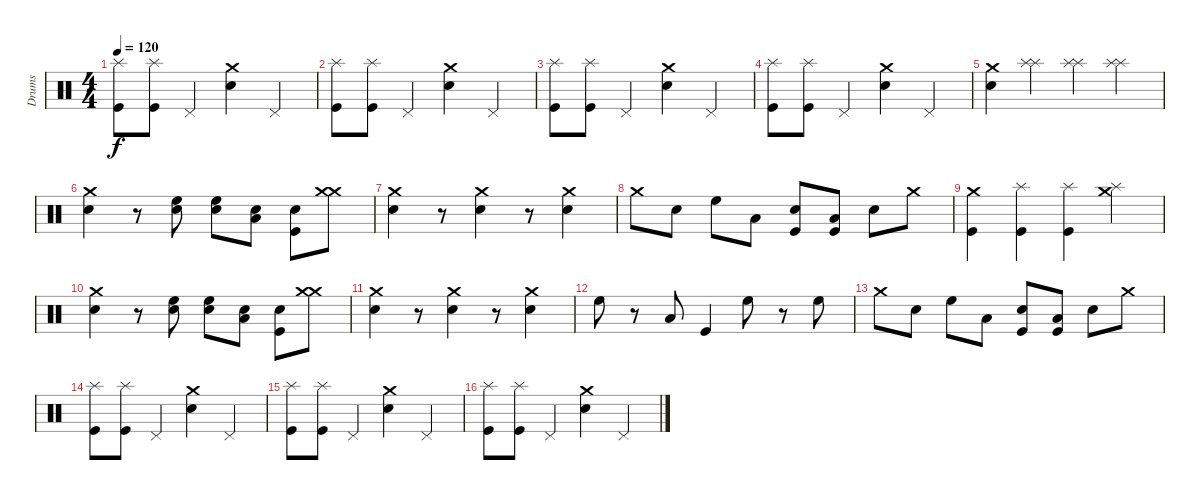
\track ("Drums" "Drums") {instrument percussion}
\staff {score}
\articulation defaults
\ts (4 4)
\tempo 120
\clef neutral
\ks c
("Splash (hit)" "Kick (hit)").8{dy f} ("Splash (hit)" "Kick (hit)").8 "Pedal Hi-Hat (hit)".4 ("Crash medium (hit)" "Snare (hit) 2").4 "Pedal Hi-Hat (hit)".4 |
("Splash (hit)" "Kick (hit)").8 ("Splash (hit)" "Kick (hit)").8 "Pedal Hi-Hat (hit)".4 ("Crash medium (hit)" "Snare (hit) 2").4 "Pedal Hi-Hat (hit)".4 |
("Splash (hit)" "Kick (hit)").8 ("Splash (hit)" "Kick (hit)").8 "Pedal Hi-Hat (hit)".4 ("Crash medium (hit)" "Snare (hit) 2").4 "Pedal Hi-Hat (hit)".4 |
("Splash (hit)" "Kick (hit)").8 ("Splash (hit)" "Kick (hit)").8 "Pedal Hi-Hat (hit)".4 ("Crash medium (hit)" "Snare (hit) 2").4 "Pedal Hi-Hat (hit)".4 |
("Snare (hit) 2" "Crash medium (hit)").4 ("Splash (hit)" "Splash (hit)").4 ("Splash (hit)" "Splash (hit)").4 ("Splash (hit)" "Splash (hit)").4 |
("Snare (hit) 2" "Crash medium (hit)").4 r.8 ("High Floor Tom (hit)" "Snare (hit)").8 ("High Floor Tom (hit)" "Snare (hit)").8 ("Low Floor Tom (hit)" "Snare (hit)").8 ("Snare (hit) 2" "Kick (hit)").8 ("Crash medium (hit)" "Crash medium (hit)").8 |
("Crash medium (hit)" "Snare (hit) 2").4 r.8 ("Crash medium (hit)" "Snare (hit) 2").4 r.8 ("Crash medium (hit)" "Snare (hit) 2").4 |
"Crash medium (hit)".8 "Snare (hit) 2".8 "High Floor Tom (hit)".8 "Low Floor Tom (hit)".8 ("Kick (hit)" "Snare (hit) 2").8 ("Kick (hit)" "Low Floor Tom (hit)").8 "Snare (hit) 2".8 "Crash medium (hit)".8 |
("Kick (hit)" "Crash medium (hit)").4 ("Kick (hit)" "Splash (hit)").4 ("Kick (hit)" "Splash (hit)").4 ("Crash medium (hit)" "Splash (hit)").4 |
("Snare (hit) 2" "Crash medium (hit)").4 r.8 ("High Floor Tom (hit)" "Snare (hit)").8 ("High Floor Tom (hit)" "Snare (hit)").8 ("Low Floor Tom (hit)" "Snare (hit)").8 ("Snare (hit) 2" "Kick (hit)").8 ("Crash medium (hit)" "Crash medium (hit)").8 |
("Crash medium (hit)" "Snare (hit) 2").4 r.8 ("Crash medium (hit)" "Snare (hit) 2").4 r.8 ("Crash medium (hit)" "Snare (hit) 2").4 |
"High Floor Tom (hit)".8 r.8 "Low Floor Tom (hit)".8 "Kick (hit)".4 "High Floor Tom (hit)".8 r.8 "High Floor Tom (hit)".8 |
"Crash medium (hit)".8 "Snare (hit) 2".8 "High Floor Tom (hit)".8 "Low Floor Tom (hit)".8 ("Kick (hit)" "Snare (hit) 2").8 ("Kick (hit)" "Low Floor Tom (hit)").8 "Snare (hit) 2".8 "Crash medium (hit)".8 |
("Splash (hit)" "Kick (hit)").8 ("Splash (hit)" "Kick (hit)").8 "Pedal Hi-Hat (hit)".4 ("Crash medium (hit)" "Snare (hit) 2").4 "Pedal Hi-Hat (hit)".4 |
("Splash (hit)" "Kick (hit)").8 ("Splash (hit)" "Kick (hit)").8 "Pedal Hi-Hat (hit)".4 ("Crash medium (hit)" "Snare (hit) 2").4 "Pedal Hi-Hat (hit)".4 |
("Splash (hit)" "Kick (hit)").8 ("Splash (hit)" "Kick (hit)").8 "Pedal Hi-Hat (hit)".4 ("Crash medium (hit)" "Snare (hit) 2").4 "Pedal Hi-Hat (hit)".4
